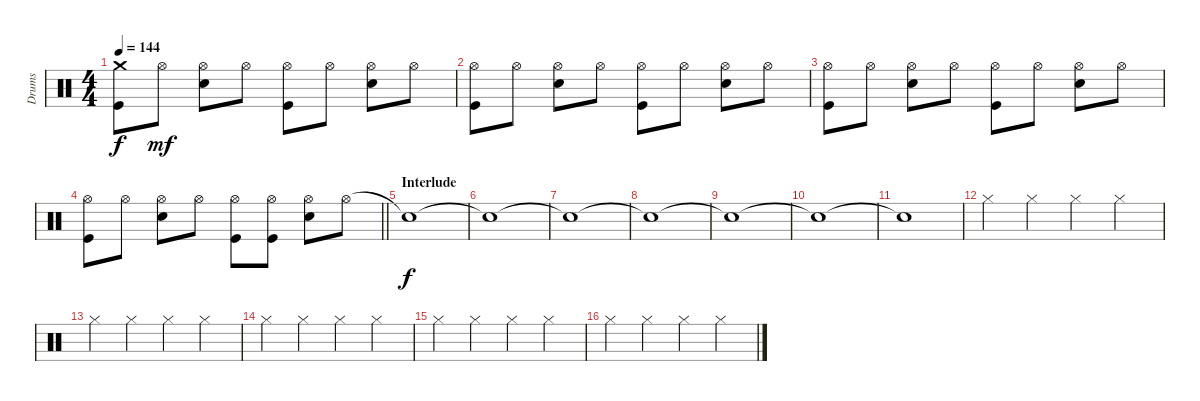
\track ("Drums" "Drums") {instrument percussion}
\staff {score}
\articulation defaults
\ts (4 4)
\tempo 144
\clef neutral
\ks c
("Crash medium (hit)" "Kick (hit)").8{dy f} "Hi-Hat (open)".8{dy mf} ("Hi-Hat (open)" "Snare (hit) 2").8 "Hi-Hat (open)".8 ("Hi-Hat (open)" "Kick (hit)").8 "Hi-Hat (open)".8 ("Hi-Hat (open)" "Snare (hit) 2").8 "Hi-Hat (open)".8 |
("Hi-Hat (open)" "Kick (hit)").8 "Hi-Hat (open)".8 ("Hi-Hat (open)" "Snare (hit) 2").8 "Hi-Hat (open)".8 ("Hi-Hat (open)" "Kick (hit)").8 "Hi-Hat (open)".8 ("Hi-Hat (open)" "Snare (hit) 2").8 "Hi-Hat (open)".8 |
("Hi-Hat (open)" "Kick (hit)").8 "Hi-Hat (open)".8 ("Hi-Hat (open)" "Snare (hit) 2").8 "Hi-Hat (open)".8 ("Hi-Hat (open)" "Kick (hit)").8 "Hi-Hat (open)".8 ("Hi-Hat (open)" "Snare (hit) 2").8 "Hi-Hat (open)".8 |
\barLineRight lightlight
("Hi-Hat (open)" "Kick (hit)").8 "Hi-Hat (open)".8 ("Hi-Hat (open)" "Snare (hit) 2").8 "Hi-Hat (open)".8 ("Hi-Hat (open)" "Kick (hit)").8 ("Hi-Hat (open)" "Kick (hit)").8 ("Hi-Hat (open)" "Snare (hit) 2").8 "Hi-Hat (open)".8 |
\section ("" "Interlude")
"Snare (hit)"{t}.1{dy f} |
"Snare (hit)"{t}.1 |
"Snare (hit)"{t}.1 |
"Snare (hit)"{t}.1 |
"Snare (hit)"{t}.1 |
"Snare (hit)"{t}.1 |
"Snare (hit)"{t}.1 |
"Hi-Hat (closed)".4 "Hi-Hat (closed)".4 "Hi-Hat (closed)".4 "Hi-Hat (closed)".4 |
"Hi-Hat (closed)".4 "Hi-Hat (closed)".4 "Hi-Hat (closed)".4 "Hi-Hat (closed)".4 |
"Hi-Hat (closed)".4 "Hi-Hat (closed)".4 "Hi-Hat (closed)".4 "Hi-Hat (closed)".4 |
"Hi-Hat (closed)".4 "Hi-Hat (closed)".4 "Hi-Hat (closed)".4 "Hi-Hat (closed)".4 |
"Hi-Hat (closed)".4 "Hi-Hat (closed)".4 "Hi-Hat (closed)".4 "Hi-Hat (closed)".4
